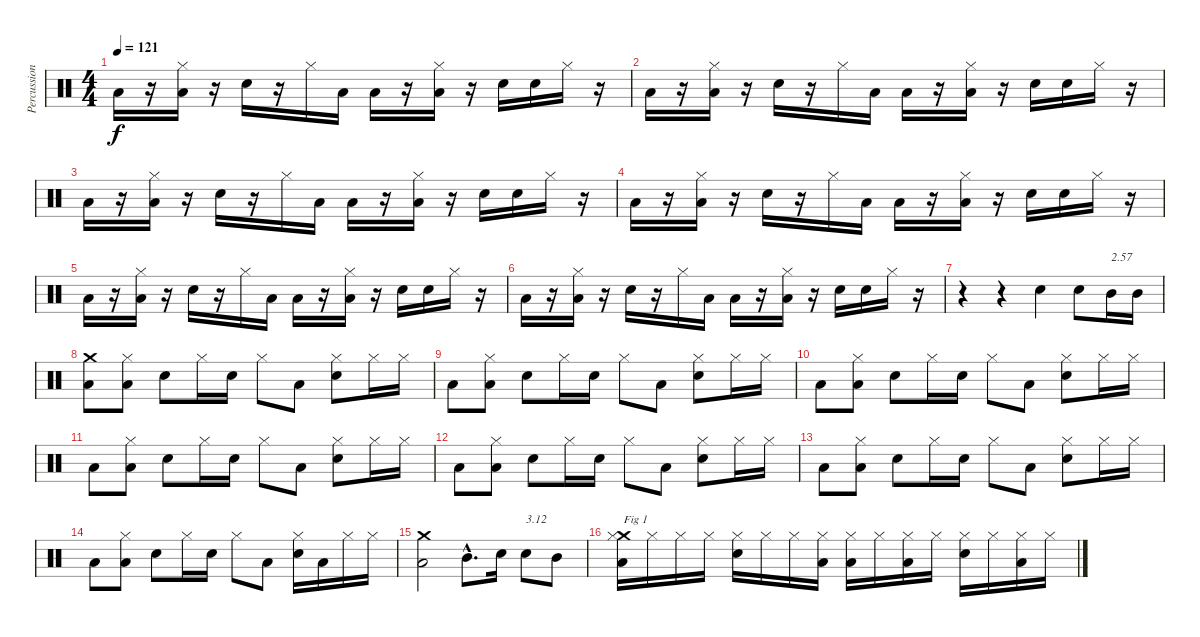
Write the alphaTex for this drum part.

\track ("Percussions" "Percussion") {instrument percussion}
\staff {score}
\articulation defaults
\ts (4 4)
\tempo 121
\clef neutral
\ks c "Low Floor Tom (hit)".16{dy f}
r.16 ("Low Floor Tom (hit)" "Hi-Hat (closed)").16 r.16 "Electric Snare (hit)".16 r.16 "Hi-Hat (closed)".16 "Low Floor Tom (hit)".16 "Low Floor Tom (hit)".16 r.16 ("Low Floor Tom (hit)" "Hi-Hat (closed)").16 r.16 "Electric Snare (hit)".16 "Electric Snare (hit)".16 "Hi-Hat (closed)".16 r.16 |
"Low Floor Tom (hit)".16 r.16 ("Low Floor Tom (hit)" "Hi-Hat (closed)").16 r.16 "Electric Snare (hit)".16 r.16 "Hi-Hat (closed)".16 "Low Floor Tom (hit)".16 "Low Floor Tom (hit)".16 r.16 ("Low Floor Tom (hit)" "Hi-Hat (closed)").16 r.16 "Electric Snare (hit)".16 "Electric Snare (hit)".16 "Hi-Hat (closed)".16 r.16 |
"Low Floor Tom (hit)".16 r.16 ("Low Floor Tom (hit)" "Hi-Hat (closed)").16 r.16 "Electric Snare (hit)".16 r.16 "Hi-Hat (closed)".16 "Low Floor Tom (hit)".16 "Low Floor Tom (hit)".16 r.16 ("Low Floor Tom (hit)" "Hi-Hat (closed)").16 r.16 "Electric Snare (hit)".16 "Electric Snare (hit)".16 "Hi-Hat (closed)".16 r.16 |
"Low Floor Tom (hit)".16 r.16 ("Low Floor Tom (hit)" "Hi-Hat (closed)").16 r.16 "Electric Snare (hit)".16 r.16 "Hi-Hat (closed)".16 "Low Floor Tom (hit)".16 "Low Floor Tom (hit)".16 r.16 ("Low Floor Tom (hit)" "Hi-Hat (closed)").16 r.16 "Electric Snare (hit)".16 "Electric Snare (hit)".16 "Hi-Hat (closed)".16 r.16 |
"Low Floor Tom (hit)".16 r.16 ("Low Floor Tom (hit)" "Hi-Hat (closed)").16 r.16 "Electric Snare (hit)".16 r.16 "Hi-Hat (closed)".16 "Low Floor Tom (hit)".16 "Low Floor Tom (hit)".16 r.16 ("Low Floor Tom (hit)" "Hi-Hat (closed)").16 r.16 "Electric Snare (hit)".16 "Electric Snare (hit)".16 "Hi-Hat (closed)".16 r.16 |
"Low Floor Tom (hit)".16 r.16 ("Low Floor Tom (hit)" "Hi-Hat (closed)").16 r.16 "Electric Snare (hit)".16 r.16 "Hi-Hat (closed)".16 "Low Floor Tom (hit)".16 "Low Floor Tom (hit)".16 r.16 ("Low Floor Tom (hit)" "Hi-Hat (closed)").16 r.16 "Electric Snare (hit)".16 "Electric Snare (hit)".16 "Hi-Hat (closed)".16 r.16 |
r.4 r.4 "Electric Snare (hit)".4 "Electric Snare (hit)".8 "Mid Tom (hit)".16{txt "2.57"} "Mid Tom (hit)".16 |
("Low Floor Tom (hit)" "Crash medium (hit)").8 ("Low Floor Tom (hit)" "Hi-Hat (closed)").8 "Electric Snare (hit)".8 "Hi-Hat (closed)".16 "Electric Snare (hit)".16 "Hi-Hat (closed)".8 "Low Floor Tom (hit)".8 ("Electric Snare (hit)" "Hi-Hat (closed)").8 "Hi-Hat (closed)".16 "Hi-Hat (closed)".16 |
"Low Floor Tom (hit)".8 ("Low Floor Tom (hit)" "Hi-Hat (closed)").8 "Electric Snare (hit)".8 "Hi-Hat (closed)".16 "Electric Snare (hit)".16 "Hi-Hat (closed)".8 "Low Floor Tom (hit)".8 ("Electric Snare (hit)" "Hi-Hat (closed)").8 "Hi-Hat (closed)".16 "Hi-Hat (closed)".16 |
"Low Floor Tom (hit)".8 ("Low Floor Tom (hit)" "Hi-Hat (closed)").8 "Electric Snare (hit)".8 "Hi-Hat (closed)".16 "Electric Snare (hit)".16 "Hi-Hat (closed)".8 "Low Floor Tom (hit)".8 ("Electric Snare (hit)" "Hi-Hat (closed)").8 "Hi-Hat (closed)".16 "Hi-Hat (closed)".16 |
"Low Floor Tom (hit)".8 ("Low Floor Tom (hit)" "Hi-Hat (closed)").8 "Electric Snare (hit)".8 "Hi-Hat (closed)".16 "Electric Snare (hit)".16 "Hi-Hat (closed)".8 "Low Floor Tom (hit)".8 ("Electric Snare (hit)" "Hi-Hat (closed)").8 "Hi-Hat (closed)".16 "Hi-Hat (closed)".16 |
"Low Floor Tom (hit)".8 ("Low Floor Tom (hit)" "Hi-Hat (closed)").8 "Electric Snare (hit)".8 "Hi-Hat (closed)".16 "Electric Snare (hit)".16 "Hi-Hat (closed)".8 "Low Floor Tom (hit)".8 ("Electric Snare (hit)" "Hi-Hat (closed)").8 "Hi-Hat (closed)".16 "Hi-Hat (closed)".16 |
"Low Floor Tom (hit)".8 ("Low Floor Tom (hit)" "Hi-Hat (closed)").8 "Electric Snare (hit)".8 "Hi-Hat (closed)".16 "Electric Snare (hit)".16 "Hi-Hat (closed)".8 "Low Floor Tom (hit)".8 ("Electric Snare (hit)" "Hi-Hat (closed)").8 "Hi-Hat (closed)".16 "Hi-Hat (closed)".16 |
"Low Floor Tom (hit)".8 ("Low Floor Tom (hit)" "Hi-Hat (closed)").8 "Electric Snare (hit)".8 "Hi-Hat (closed)".16 "Electric Snare (hit)".16 "Hi-Hat (closed)".8 "Low Floor Tom (hit)".8 ("Electric Snare (hit)" "Hi-Hat (closed)").16 "Low Floor Tom (hit)".16 "Hi-Hat (closed)".16 "Hi-Hat (closed)".16 |
("Low Floor Tom (hit)" "Crash medium (hit)").2 "Mid Tom (hit)"{hac}.8{d} "Electric Snare (hit)".16 "Electric Snare (hit)".8{txt "3.12"} "Mid Tom (hit)".8 |
("Low Floor Tom (hit)" "Crash medium (hit)" "Hi-Hat (closed)").16{txt "Fig 1"} "Hi-Hat (closed)".16 "Hi-Hat (closed)".16 "Hi-Hat (closed)".16 ("Electric Snare (hit)" "Hi-Hat (closed)").16 "Hi-Hat (closed)".16 "Hi-Hat (closed)".16 ("Low Floor Tom (hit)" "Hi-Hat (closed)").16 ("Low Floor Tom (hit)" "Hi-Hat (closed)").16 "Hi-Hat (closed)".16 ("Low Floor Tom (hit)" "Hi-Hat (closed)").16 "Hi-Hat (closed)".16 ("Electric Snare (hit)" "Hi-Hat (closed)").16 "Hi-Hat (closed)".16 ("Low Floor Tom (hit)" "Hi-Hat (closed)").16 "Hi-Hat (closed)".16
